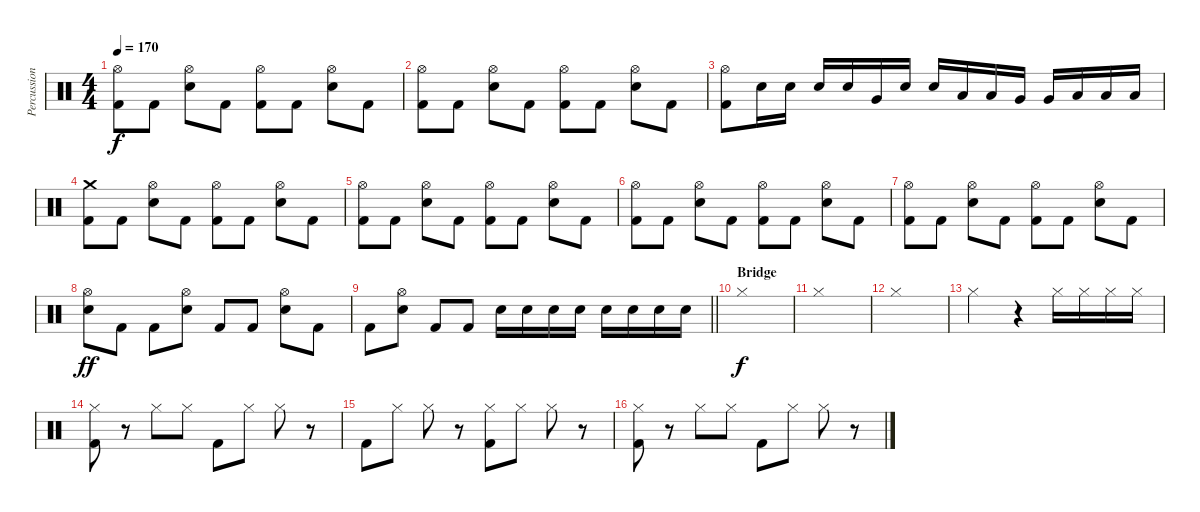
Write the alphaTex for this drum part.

\track ("Percussions" "Percussion") {instrument percussion}
\staff {score}
\articulation defaults
\ts (4 4)
\tempo 170
\clef neutral
\ks c
("Hi-Hat (open)" "Kick (hit) 2").8{dy f} "Kick (hit) 2".8 ("Hi-Hat (open)" "Electric Snare (hit)").8 "Kick (hit) 2".8 ("Hi-Hat (open)" "Kick (hit) 2").8 "Kick (hit) 2".8 ("Hi-Hat (open)" "Electric Snare (hit)").8 "Kick (hit) 2".8 |
("Hi-Hat (open)" "Kick (hit) 2").8 "Kick (hit) 2".8 ("Hi-Hat (open)" "Electric Snare (hit)").8 "Kick (hit) 2".8 ("Hi-Hat (open)" "Kick (hit) 2").8 "Kick (hit) 2".8 ("Hi-Hat (open)" "Electric Snare (hit)").8 "Kick (hit) 2".8 |
("Hi-Hat (open)" "Kick (hit) 2").8 "Snare (hit) 2".16 "Snare (hit) 2".16 "Snare (hit) 2".16 "Snare (hit) 2".16 "Very Low Tom (hit)".16 "Snare (hit) 2".16 "Snare (hit) 2".16 "Low Tom (hit)".16 "Low Tom (hit)".16 "Very Low Tom (hit)".16 "Very Low Tom (hit)".16 "Low Floor Tom (hit)".16 "Low Floor Tom (hit)".16 "Low Floor Tom (hit)".16 |
("Crash medium (hit)" "Kick (hit) 2").8 "Kick (hit) 2".8 ("Hi-Hat (open)" "Electric Snare (hit)").8 "Kick (hit) 2".8 ("Hi-Hat (open)" "Kick (hit) 2").8 "Kick (hit) 2".8 ("Hi-Hat (open)" "Electric Snare (hit)").8 "Kick (hit) 2".8 |
("Hi-Hat (open)" "Kick (hit) 2").8 "Kick (hit) 2".8 ("Hi-Hat (open)" "Electric Snare (hit)").8 "Kick (hit) 2".8 ("Hi-Hat (open)" "Kick (hit) 2").8 "Kick (hit) 2".8 ("Hi-Hat (open)" "Electric Snare (hit)").8 "Kick (hit) 2".8 |
("Hi-Hat (open)" "Kick (hit) 2").8 "Kick (hit) 2".8 ("Hi-Hat (open)" "Electric Snare (hit)").8 "Kick (hit) 2".8 ("Hi-Hat (open)" "Kick (hit) 2").8 "Kick (hit) 2".8 ("Hi-Hat (open)" "Electric Snare (hit)").8 "Kick (hit) 2".8 |
("Hi-Hat (open)" "Kick (hit) 2").8 "Kick (hit) 2".8 ("Hi-Hat (open)" "Electric Snare (hit)").8 "Kick (hit) 2".8 ("Hi-Hat (open)" "Kick (hit) 2").8 "Kick (hit) 2".8 ("Hi-Hat (open)" "Electric Snare (hit)").8 "Kick (hit) 2".8 |
("Hi-Hat (open)" "Electric Snare (hit)").8{dy ff} "Kick (hit) 2".8 "Kick (hit) 2".8 ("Hi-Hat (open)" "Electric Snare (hit)").8 "Kick (hit) 2".8 "Kick (hit) 2".8 ("Hi-Hat (open)" "Electric Snare (hit)").8 "Kick (hit) 2".8 |
\barLineRight lightlight "Kick (hit) 2".8
("Hi-Hat (open)" "Electric Snare (hit)").8 "Kick (hit) 2".8 "Kick (hit) 2".8 "Electric Snare (hit)".16 "Electric Snare (hit)".16 "Electric Snare (hit)".16 "Electric Snare (hit)".16 "Electric Snare (hit)".16 "Electric Snare (hit)".16 "Electric Snare (hit)".16 "Electric Snare (hit)".16 |
\section ("" "Bridge")
"Hi-Hat (closed)".1{dy f} |
"Hi-Hat (closed)".1 |
"Hi-Hat (closed)".1 |
"Hi-Hat (closed)".2 r.4 "Hi-Hat (closed)".16 "Hi-Hat (closed)".16 "Hi-Hat (closed)".16 "Hi-Hat (closed)".16 |
("Hi-Hat (closed)" "Kick (hit) 2").8 r.8 "Hi-Hat (closed)".8 "Hi-Hat (closed)".8 "Kick (hit) 2".8 "Hi-Hat (closed)".8 "Hi-Hat (closed)".8 r.8 |
"Kick (hit) 2".8 "Hi-Hat (closed)".8 "Hi-Hat (closed)".8 r.8 ("Hi-Hat (closed)" "Kick (hit) 2").8 "Hi-Hat (closed)".8 "Hi-Hat (closed)".8 r.8 |
("Hi-Hat (closed)" "Kick (hit) 2").8 r.8 "Hi-Hat (closed)".8 "Hi-Hat (closed)".8 "Kick (hit) 2".8 "Hi-Hat (closed)".8 "Hi-Hat (closed)".8 r.8
